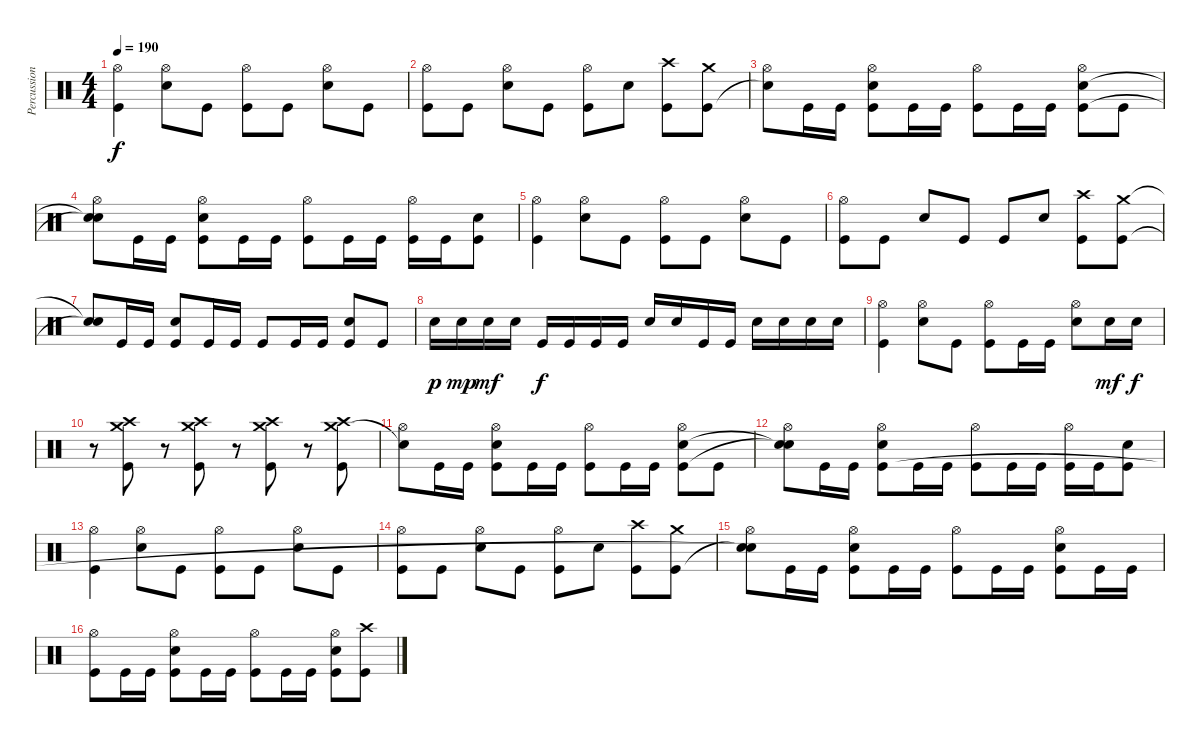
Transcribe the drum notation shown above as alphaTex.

\track ("Percussions" "Percussion") {instrument percussion}
\staff {score}
\articulation defaults
\ts (4 4)
\tempo 190
\clef neutral
\ks c
("Hi-Hat (open)" "Kick (hit)").4{dy f} ("Hi-Hat (open)" "Snare (hit) 2").8 "Kick (hit)".8 ("Hi-Hat (open)" "Kick (hit)").8 "Kick (hit)".8 ("Hi-Hat (open)" "Snare (hit) 2").8 "Kick (hit)".8 |
("Hi-Hat (open)" "Kick (hit)").8 "Kick (hit)".8 ("Hi-Hat (open)" "Snare (hit) 2").8 "Kick (hit)".8 ("Hi-Hat (open)" "Kick (hit)").8 "Snare (hit) 2".8 ("Crash high (hit)" "Kick (hit)").8 ("Crash medium (hit)" "Kick (hit)").8 |
("Hi-Hat (open)" "Snare (hit)"{t}).8 "Kick (hit)".16 "Kick (hit)".16 ("Hi-Hat (open)" "Snare (hit) 2" "Kick (hit)").8 "Kick (hit)".16 "Kick (hit)".16 ("Hi-Hat (open)" "Kick (hit)").8 "Kick (hit)".16 "Kick (hit)".16 ("Hi-Hat (open)" "Snare (hit) 2" "Kick (hit)").8 "Kick (hit)".8 |
("Hi-Hat (open)" "Snare (hit)"{t} "Snare (hit)"{t}).8 "Kick (hit)".16 "Kick (hit)".16 ("Hi-Hat (open)" "Snare (hit) 2" "Kick (hit)").8 "Kick (hit)".16 "Kick (hit)".16 ("Hi-Hat (open)" "Kick (hit)").8 "Kick (hit)".16 "Kick (hit)".16 ("Hi-Hat (open)" "Kick (hit)").16 "Kick (hit)".16 ("Snare (hit) 2" "Kick (hit)").8 |
("Hi-Hat (open)" "Kick (hit)").4 ("Hi-Hat (open)" "Snare (hit) 2").8 "Kick (hit)".8 ("Hi-Hat (open)" "Kick (hit)").8 "Kick (hit)".8 ("Hi-Hat (open)" "Snare (hit) 2").8 "Kick (hit)".8 |
("Hi-Hat (open)" "Kick (hit)").8 "Kick (hit)".8 "Snare (hit) 2".8 "Kick (hit)".8 "Kick (hit)".8 "Snare (hit) 2".8 ("Crash high (hit)" "Kick (hit)").8 ("Crash medium (hit)" "Kick (hit)").8 |
("Snare (hit)"{t} "Snare (hit)"{t}).8 "Kick (hit)".16 "Kick (hit)".16 ("Snare (hit) 2" "Kick (hit)").8 "Kick (hit)".16 "Kick (hit)".16 "Kick (hit)".8 "Kick (hit)".16 "Kick (hit)".16 ("Snare (hit) 2" "Kick (hit)").8 "Kick (hit)".8 |
"Snare (hit) 2".16{dy p} "Snare (hit) 2".16{dy mp} "Snare (hit) 2".16{dy mf} "Snare (hit) 2".16 "Kick (hit)".16{dy f} "Kick (hit)".16 "Kick (hit)".16 "Kick (hit)".16 "Snare (hit) 2".16 "Snare (hit) 2".16 "Kick (hit)".16 "Kick (hit)".16 "Snare (hit) 2".16 "Snare (hit) 2".16 "Snare (hit) 2".16 "Snare (hit) 2".16 |
("Hi-Hat (open)" "Kick (hit)").4 ("Hi-Hat (open)" "Snare (hit) 2").8 "Kick (hit)".8 ("Hi-Hat (open)" "Kick (hit)").8 "Kick (hit)".16 "Kick (hit)".16 ("Hi-Hat (open)" "Snare (hit) 2").8 "Snare (hit) 2".16{dy mf} "Snare (hit) 2".16{dy f} |
r.8 ("Crash high (hit)" "Crash medium (hit)" "Kick (hit)").8 r.8 ("Crash high (hit)" "Crash medium (hit)" "Kick (hit)").8 r.8 ("Crash high (hit)" "Crash medium (hit)" "Kick (hit)").8 r.8 ("Crash high (hit)" "Crash medium (hit)" "Kick (hit)").8 |
("Hi-Hat (open)" "Snare (hit)"{t}).8 "Kick (hit)".16 "Kick (hit)".16 ("Hi-Hat (open)" "Snare (hit) 2" "Kick (hit)").8 "Kick (hit)".16 "Kick (hit)".16 ("Hi-Hat (open)" "Kick (hit)").8 "Kick (hit)".16 "Kick (hit)".16 ("Hi-Hat (open)" "Snare (hit) 2" "Kick (hit)").8 "Kick (hit)".8 |
("Hi-Hat (open)" "Snare (hit)"{t} "Snare (hit)"{t}).8 "Kick (hit)".16 "Kick (hit)".16 ("Hi-Hat (open)" "Snare (hit) 2" "Kick (hit)").8 "Kick (hit)".16 "Kick (hit)".16 ("Hi-Hat (open)" "Kick (hit)").8 "Kick (hit)".16 "Kick (hit)".16 ("Hi-Hat (open)" "Kick (hit)").16 "Kick (hit)".16 ("Snare (hit) 2" "Kick (hit)").8 |
("Hi-Hat (open)" "Kick (hit)").4 ("Hi-Hat (open)" "Snare (hit) 2").8 "Kick (hit)".8 ("Hi-Hat (open)" "Kick (hit)").8 "Kick (hit)".8 ("Hi-Hat (open)" "Snare (hit) 2").8 "Kick (hit)".8 |
("Hi-Hat (open)" "Kick (hit)").8 "Kick (hit)".8 ("Hi-Hat (open)" "Snare (hit) 2").8 "Kick (hit)".8 ("Hi-Hat (open)" "Kick (hit)").8 "Snare (hit) 2".8 ("Crash high (hit)" "Kick (hit)").8 ("Crash medium (hit)" "Kick (hit)").8 |
("Hi-Hat (open)" "Snare (hit)"{t} "Snare (hit)"{t}).8 "Kick (hit)".16 "Kick (hit)".16 ("Hi-Hat (open)" "Snare (hit) 2" "Kick (hit)").8 "Kick (hit)".16 "Kick (hit)".16 ("Hi-Hat (open)" "Kick (hit)").8 "Kick (hit)".16 "Kick (hit)".16 ("Hi-Hat (open)" "Snare (hit) 2" "Kick (hit)").8 "Kick (hit)".16 "Kick (hit)".16 |
("Hi-Hat (open)" "Kick (hit)").8 "Kick (hit)".16 "Kick (hit)".16 ("Hi-Hat (open)" "Snare (hit) 2" "Kick (hit)").8 "Kick (hit)".16 "Kick (hit)".16 ("Hi-Hat (open)" "Kick (hit)").8 "Kick (hit)".16 "Kick (hit)".16 ("Hi-Hat (open)" "Snare (hit) 2" "Kick (hit)").8 ("Crash high (hit)" "Kick (hit)").8
